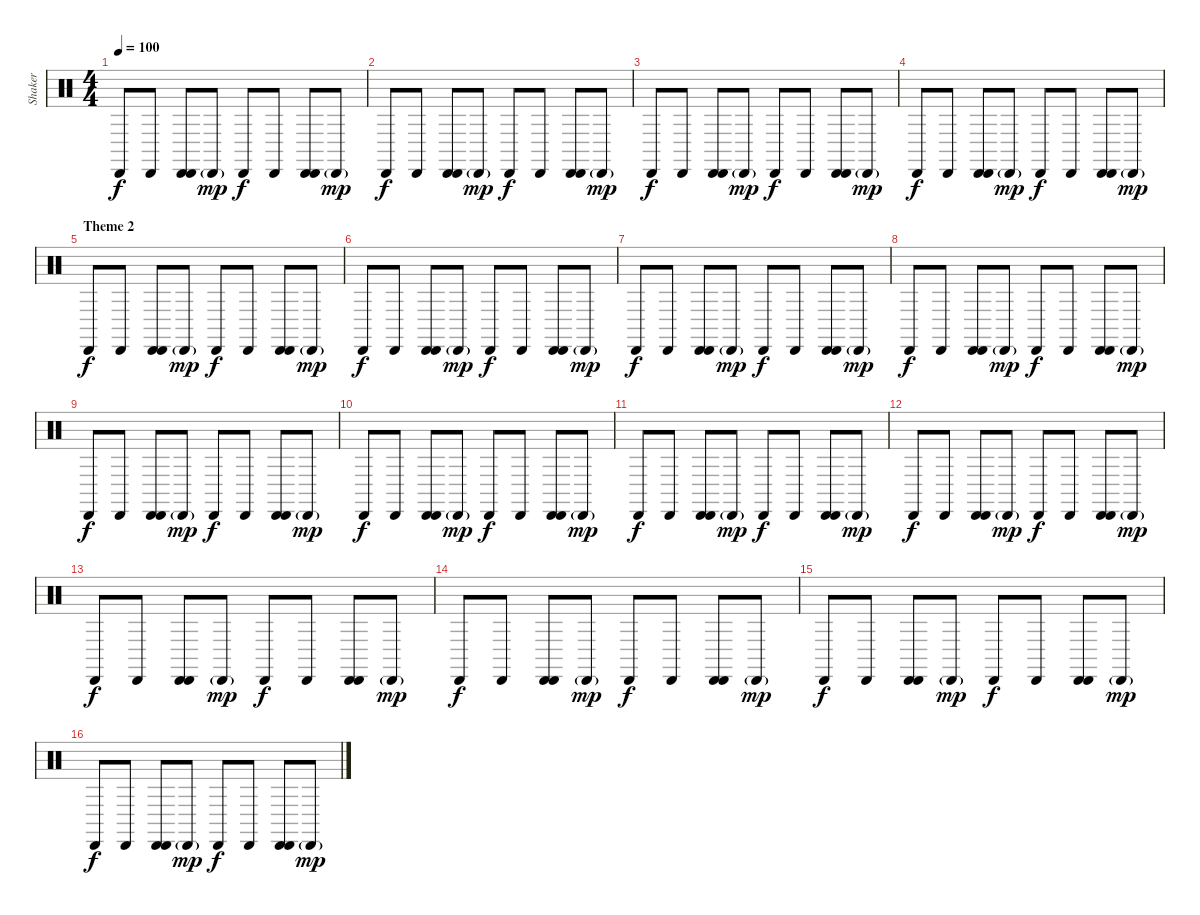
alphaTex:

\track ("Shaker" "Shaker") {instrument percussion}
\staff {score}
\articulation defaults
\ts (4 4)
\tempo 100
\clef neutral
\ks c "Cabasa (hit)".8{dy f} "Cabasa (hit)".8
("Cabasa (hit)" "Cabasa (hit)").8 "Cabasa (hit)"{g}.8{dy mp} "Cabasa (hit)".8{dy f} "Cabasa (hit)".8 ("Cabasa (hit)" "Cabasa (hit)").8 "Cabasa (hit)"{g}.8{dy mp} |
"Cabasa (hit)".8{dy f} "Cabasa (hit)".8 ("Cabasa (hit)" "Cabasa (hit)").8 "Cabasa (hit)"{g}.8{dy mp} "Cabasa (hit)".8{dy f} "Cabasa (hit)".8 ("Cabasa (hit)" "Cabasa (hit)").8 "Cabasa (hit)"{g}.8{dy mp} |
"Cabasa (hit)".8{dy f} "Cabasa (hit)".8 ("Cabasa (hit)" "Cabasa (hit)").8 "Cabasa (hit)"{g}.8{dy mp} "Cabasa (hit)".8{dy f} "Cabasa (hit)".8 ("Cabasa (hit)" "Cabasa (hit)").8 "Cabasa (hit)"{g}.8{dy mp} |
"Cabasa (hit)".8{dy f} "Cabasa (hit)".8 ("Cabasa (hit)" "Cabasa (hit)").8 "Cabasa (hit)"{g}.8{dy mp} "Cabasa (hit)".8{dy f} "Cabasa (hit)".8 ("Cabasa (hit)" "Cabasa (hit)").8 "Cabasa (hit)"{g}.8{dy mp} |
\section ("" "Theme 2")
"Cabasa (hit)".8{dy f} "Cabasa (hit)".8 ("Cabasa (hit)" "Cabasa (hit)").8 "Cabasa (hit)"{g}.8{dy mp} "Cabasa (hit)".8{dy f} "Cabasa (hit)".8 ("Cabasa (hit)" "Cabasa (hit)").8 "Cabasa (hit)"{g}.8{dy mp} |
"Cabasa (hit)".8{dy f} "Cabasa (hit)".8 ("Cabasa (hit)" "Cabasa (hit)").8 "Cabasa (hit)"{g}.8{dy mp} "Cabasa (hit)".8{dy f} "Cabasa (hit)".8 ("Cabasa (hit)" "Cabasa (hit)").8 "Cabasa (hit)"{g}.8{dy mp} |
"Cabasa (hit)".8{dy f} "Cabasa (hit)".8 ("Cabasa (hit)" "Cabasa (hit)").8 "Cabasa (hit)"{g}.8{dy mp} "Cabasa (hit)".8{dy f} "Cabasa (hit)".8 ("Cabasa (hit)" "Cabasa (hit)").8 "Cabasa (hit)"{g}.8{dy mp} |
"Cabasa (hit)".8{dy f} "Cabasa (hit)".8 ("Cabasa (hit)" "Cabasa (hit)").8 "Cabasa (hit)"{g}.8{dy mp} "Cabasa (hit)".8{dy f} "Cabasa (hit)".8 ("Cabasa (hit)" "Cabasa (hit)").8 "Cabasa (hit)"{g}.8{dy mp} |
"Cabasa (hit)".8{dy f} "Cabasa (hit)".8 ("Cabasa (hit)" "Cabasa (hit)").8 "Cabasa (hit)"{g}.8{dy mp} "Cabasa (hit)".8{dy f} "Cabasa (hit)".8 ("Cabasa (hit)" "Cabasa (hit)").8 "Cabasa (hit)"{g}.8{dy mp} |
"Cabasa (hit)".8{dy f} "Cabasa (hit)".8 ("Cabasa (hit)" "Cabasa (hit)").8 "Cabasa (hit)"{g}.8{dy mp} "Cabasa (hit)".8{dy f} "Cabasa (hit)".8 ("Cabasa (hit)" "Cabasa (hit)").8 "Cabasa (hit)"{g}.8{dy mp} |
"Cabasa (hit)".8{dy f} "Cabasa (hit)".8 ("Cabasa (hit)" "Cabasa (hit)").8 "Cabasa (hit)"{g}.8{dy mp} "Cabasa (hit)".8{dy f} "Cabasa (hit)".8 ("Cabasa (hit)" "Cabasa (hit)").8 "Cabasa (hit)"{g}.8{dy mp} |
"Cabasa (hit)".8{dy f} "Cabasa (hit)".8 ("Cabasa (hit)" "Cabasa (hit)").8 "Cabasa (hit)"{g}.8{dy mp} "Cabasa (hit)".8{dy f} "Cabasa (hit)".8 ("Cabasa (hit)" "Cabasa (hit)").8 "Cabasa (hit)"{g}.8{dy mp} |
"Cabasa (hit)".8{dy f} "Cabasa (hit)".8 ("Cabasa (hit)" "Cabasa (hit)").8 "Cabasa (hit)"{g}.8{dy mp} "Cabasa (hit)".8{dy f} "Cabasa (hit)".8 ("Cabasa (hit)" "Cabasa (hit)").8 "Cabasa (hit)"{g}.8{dy mp} |
"Cabasa (hit)".8{dy f} "Cabasa (hit)".8 ("Cabasa (hit)" "Cabasa (hit)").8 "Cabasa (hit)"{g}.8{dy mp} "Cabasa (hit)".8{dy f} "Cabasa (hit)".8 ("Cabasa (hit)" "Cabasa (hit)").8 "Cabasa (hit)"{g}.8{dy mp} |
"Cabasa (hit)".8{dy f} "Cabasa (hit)".8 ("Cabasa (hit)" "Cabasa (hit)").8 "Cabasa (hit)"{g}.8{dy mp} "Cabasa (hit)".8{dy f} "Cabasa (hit)".8 ("Cabasa (hit)" "Cabasa (hit)").8 "Cabasa (hit)"{g}.8{dy mp} |
"Cabasa (hit)".8{dy f} "Cabasa (hit)".8 ("Cabasa (hit)" "Cabasa (hit)").8 "Cabasa (hit)"{g}.8{dy mp} "Cabasa (hit)".8{dy f} "Cabasa (hit)".8 ("Cabasa (hit)" "Cabasa (hit)").8 "Cabasa (hit)"{g}.8{dy mp}
